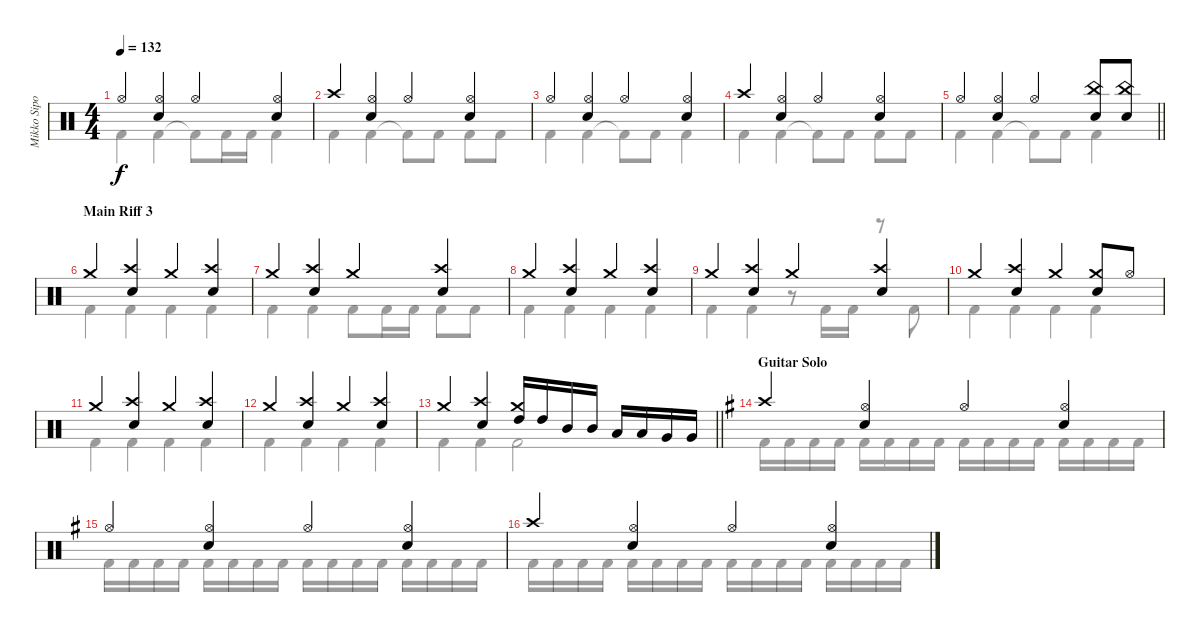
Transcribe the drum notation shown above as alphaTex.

\track ("Mikko Sipola (drums)" "Mikko Sipo") {instrument percussion}
\staff {score}
\articulation defaults
\voice
\ts (4 4)
\tempo 132
\clef neutral
\ks c "Hi-Hat (open)".4{dy f}
("Hi-Hat (open)" "Electric Snare (hit)").4 "Hi-Hat (open)".4 ("Hi-Hat (open)" "Electric Snare (hit)").4 |
"Crash high (hit)".4 ("Hi-Hat (open)" "Electric Snare (hit)").4 "Hi-Hat (open)".4 ("Hi-Hat (open)" "Electric Snare (hit)").4 |
"Hi-Hat (open)".4 ("Hi-Hat (open)" "Electric Snare (hit)").4 "Hi-Hat (open)".4 ("Hi-Hat (open)" "Electric Snare (hit)").4 |
"Crash high (hit)".4 ("Hi-Hat (open)" "Electric Snare (hit)").4 "Hi-Hat (open)".4 ("Hi-Hat (open)" "Electric Snare (hit)").4 |
\barLineRight lightlight "Hi-Hat (open)".4
("Hi-Hat (open)" "Electric Snare (hit)").4 "Hi-Hat (open)".4 ("China (hit)" "Electric Snare (hit)").8 ("China (hit)" "Electric Snare (hit)").8 |
\section ("" "Main Riff 3")
"Crash medium (hit)".4 ("Electric Snare (hit)" "Crash high (hit)").4 "Crash medium (hit)".4 ("Electric Snare (hit)" "Crash high (hit)").4 |
"Crash medium (hit)".4 ("Electric Snare (hit)" "Crash high (hit)").4 "Crash medium (hit)".4 ("Electric Snare (hit)" "Crash high (hit)").4 |
"Crash medium (hit)".4 ("Electric Snare (hit)" "Crash high (hit)").4 "Crash medium (hit)".4 ("Electric Snare (hit)" "Crash high (hit)").4 |
"Crash medium (hit)".4 ("Electric Snare (hit)" "Crash high (hit)").4 "Crash medium (hit)".4 ("Electric Snare (hit)" "Crash high (hit)").4 |
"Crash medium (hit)".4 ("Electric Snare (hit)" "Crash high (hit)").4 "Crash medium (hit)".4 ("Electric Snare (hit)" "Crash medium (hit)").8 "Hi-Hat (open)".8 |
"Crash medium (hit)".4 ("Electric Snare (hit)" "Crash high (hit)").4 "Crash medium (hit)".4 ("Electric Snare (hit)" "Crash high (hit)").4 |
"Crash medium (hit)".4 ("Electric Snare (hit)" "Crash high (hit)").4 "Crash medium (hit)".4 ("Electric Snare (hit)" "Crash high (hit)").4 |
\barLineRight lightlight "Crash medium (hit)".4
("Electric Snare (hit)" "Crash high (hit)").4 ("High Tom (hit)" "Crash medium (hit)").16 "High Tom (hit)".16 "Mid Tom (hit)".16 "Mid Tom (hit)".16 "Low Tom (hit)".16 "Low Tom (hit)".16 "Very Low Tom (hit)".16 "Very Low Tom (hit)".16 |
\section ("" "Guitar Solo")
\ks eminor "Crash high (hit)".4
("Hi-Hat (open)" "Electric Snare (hit)").4 "Hi-Hat (open)".4 ("Hi-Hat (open)" "Electric Snare (hit)").4 |
"Hi-Hat (open)".4 ("Hi-Hat (open)" "Electric Snare (hit)").4 "Hi-Hat (open)".4 ("Hi-Hat (open)" "Electric Snare (hit)").4 |
"Crash high (hit)".4 ("Hi-Hat (open)" "Electric Snare (hit)").4 "Hi-Hat (open)".4 ("Hi-Hat (open)" "Electric Snare (hit)").4
\voice
\clef neutral
\ottava regular
\simile none
\ks c "Kick (hit) 2".4{dy f} "Kick (hit) 2".4 "Kick (hit) 2"{t}.8 "Kick (hit) 2".16 "Kick (hit) 2".16 "Kick (hit) 2".4
|
"Kick (hit) 2".4 "Kick (hit) 2".4 "Kick (hit) 2"{t}.8 "Kick (hit) 2".8 "Kick (hit) 2".8 "Kick (hit) 2".8 |
"Kick (hit) 2".4 "Kick (hit) 2".4 "Kick (hit) 2"{t}.8 "Kick (hit) 2".8 "Kick (hit) 2".4 |
"Kick (hit) 2".4 "Kick (hit) 2".4 "Kick (hit) 2"{t}.8 "Kick (hit) 2".8 "Kick (hit) 2".8 "Kick (hit) 2".8 |
\barLineRight lightlight "Kick (hit) 2".4 "Kick (hit) 2".4 "Kick (hit) 2"{t}.8 "Kick (hit) 2".8 "Kick (hit) 2".4
|
"Kick (hit) 2".4 "Kick (hit) 2".4 "Kick (hit) 2".4 "Kick (hit) 2".4 |
"Kick (hit) 2".4 "Kick (hit) 2".4 "Kick (hit) 2".8 "Kick (hit) 2".16 "Kick (hit) 2".16 "Kick (hit) 2".8 "Kick (hit) 2".8 |
"Kick (hit) 2".4 "Kick (hit) 2".4 "Kick (hit) 2".4 "Kick (hit) 2".4 |
"Kick (hit) 2".4 "Kick (hit) 2".4 r.8 "Kick (hit) 2".16 "Kick (hit) 2".16 r.8 "Kick (hit) 2".8 |
"Kick (hit) 2".4 "Kick (hit) 2".4 "Kick (hit) 2".4 "Kick (hit) 2".4 |
"Kick (hit) 2".4 "Kick (hit) 2".4 "Kick (hit) 2".4 "Kick (hit) 2".4 |
"Kick (hit) 2".4 "Kick (hit) 2".4 "Kick (hit) 2".4 "Kick (hit) 2".4 |
\barLineRight lightlight "Kick (hit) 2".4 "Kick (hit) 2".4 "Kick (hit) 2".2
|
\ks eminor "Kick (hit) 2".16 "Kick (hit) 2".16 "Kick (hit) 2".16 "Kick (hit) 2".16 "Kick (hit) 2".16 "Kick (hit) 2".16 "Kick (hit) 2".16 "Kick (hit) 2".16 "Kick (hit) 2".16 "Kick (hit) 2".16 "Kick (hit) 2".16 "Kick (hit) 2".16 "Kick (hit) 2".16 "Kick (hit) 2".16 "Kick (hit) 2".16 "Kick (hit) 2".16
|
"Kick (hit) 2".16 "Kick (hit) 2".16 "Kick (hit) 2".16 "Kick (hit) 2".16 "Kick (hit) 2".16 "Kick (hit) 2".16 "Kick (hit) 2".16 "Kick (hit) 2".16 "Kick (hit) 2".16 "Kick (hit) 2".16 "Kick (hit) 2".16 "Kick (hit) 2".16 "Kick (hit) 2".16 "Kick (hit) 2".16 "Kick (hit) 2".16 "Kick (hit) 2".16 |
"Kick (hit) 2".16 "Kick (hit) 2".16 "Kick (hit) 2".16 "Kick (hit) 2".16 "Kick (hit) 2".16 "Kick (hit) 2".16 "Kick (hit) 2".16 "Kick (hit) 2".16 "Kick (hit) 2".16 "Kick (hit) 2".16 "Kick (hit) 2".16 "Kick (hit) 2".16 "Kick (hit) 2".16 "Kick (hit) 2".16 "Kick (hit) 2".16 "Kick (hit) 2".16
